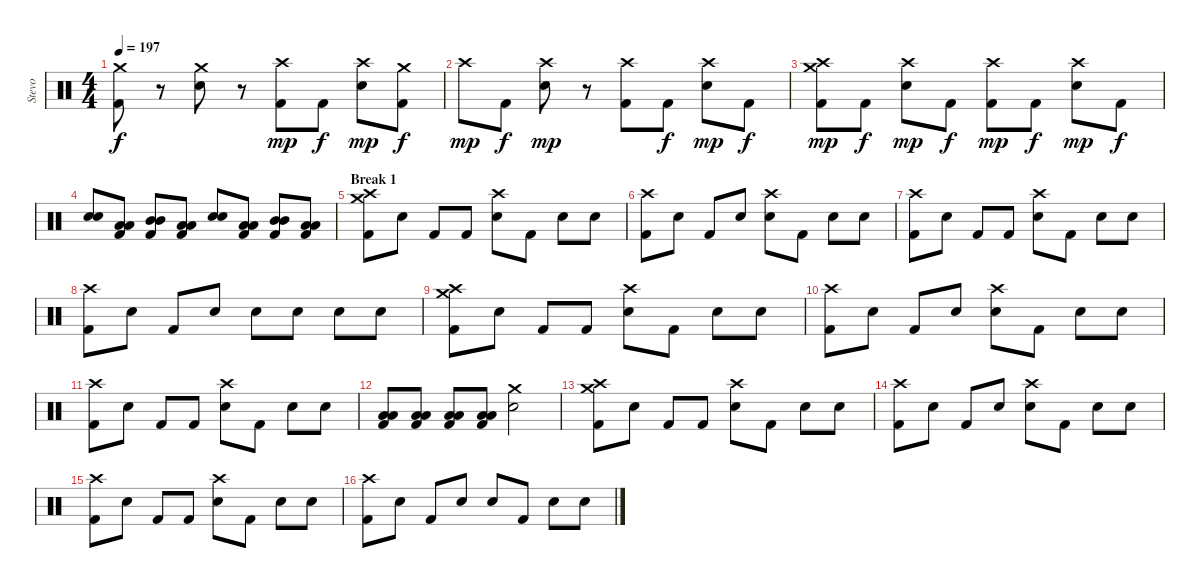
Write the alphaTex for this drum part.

\track ("Stevo" "Stevo") {instrument percussion}
\staff {score}
\articulation defaults
\ts (4 4)
\tempo 197
\clef neutral
\ks c
("Crash medium (hit)" "Kick (hit) 2").8{dy f} r.8 ("Crash medium (hit)" "Electric Snare (hit)").8 r.8 ("Crash high (hit)" "Kick (hit) 2").8{dy mp} "Kick (hit) 2".8{dy f} ("Crash high (hit)" "Electric Snare (hit)").8{dy mp} ("Crash medium (hit)" "Kick (hit) 2").8{dy f} |
"Crash high (hit)".8{dy mp} "Kick (hit) 2".8{dy f} ("Crash high (hit)" "Electric Snare (hit)").8{dy mp} r.8 ("Crash high (hit)" "Kick (hit) 2").8 "Kick (hit) 2".8{dy f} ("Crash high (hit)" "Electric Snare (hit)").8{dy mp} "Kick (hit) 2".8{dy f} |
("Crash medium (hit)" "Crash high (hit)" "Kick (hit) 2").8{dy mp} "Kick (hit) 2".8{dy f} ("Crash high (hit)" "Electric Snare (hit)").8{dy mp} "Kick (hit) 2".8{dy f} ("Crash high (hit)" "Kick (hit) 2").8{dy mp} "Kick (hit) 2".8{dy f} ("Crash high (hit)" "Electric Snare (hit)").8{dy mp} "Kick (hit) 2".8{dy f} |
("Electric Snare (hit)" "Electric Snare (hit)").8 ("Low Tom (hit)" "Low Tom (hit)" "Kick (hit) 2").8 ("Mid Tom (hit)" "Mid Tom (hit)" "Kick (hit) 2").8 ("Low Tom (hit)" "Low Tom (hit)" "Kick (hit) 2").8 ("Electric Snare (hit)" "Electric Snare (hit)").8 ("Low Tom (hit)" "Low Tom (hit)" "Kick (hit) 2").8 ("Mid Tom (hit)" "Mid Tom (hit)" "Kick (hit) 2").8 ("Low Tom (hit)" "Low Tom (hit)" "Kick (hit) 2").8 |
\section ("" "Break 1")
("Crash medium (hit)" "Crash high (hit)" "Kick (hit) 2").8 "Snare (hit)".8 "Kick (hit) 2".8 "Kick (hit) 2".8 ("Crash high (hit)" "Electric Snare (hit)").8 "Kick (hit) 2".8 "Snare (hit)".8 "Electric Snare (hit)".8 |
("Crash high (hit)" "Kick (hit) 2").8 "Electric Snare (hit)".8 "Kick (hit) 2".8 "Snare (hit)".8 ("Crash high (hit)" "Electric Snare (hit)").8 "Kick (hit) 2".8 "Snare (hit)".8 "Electric Snare (hit)".8 |
("Crash high (hit)" "Kick (hit) 2").8 "Snare (hit)".8 "Kick (hit) 2".8 "Kick (hit) 2".8 ("Crash high (hit)" "Electric Snare (hit)").8 "Kick (hit) 2".8 "Snare (hit)".8 "Electric Snare (hit)".8 |
("Crash high (hit)" "Kick (hit) 2").8 "Electric Snare (hit)".8 "Kick (hit) 2".8 "Snare (hit)".8 "Electric Snare (hit)".8 "Electric Snare (hit)".8 "Electric Snare (hit)".8 "Electric Snare (hit)".8 |
("Crash medium (hit)" "Crash high (hit)" "Kick (hit) 2").8 "Snare (hit)".8 "Kick (hit) 2".8 "Kick (hit) 2".8 ("Crash high (hit)" "Electric Snare (hit)").8 "Kick (hit) 2".8 "Snare (hit)".8 "Electric Snare (hit)".8 |
("Crash high (hit)" "Kick (hit) 2").8 "Electric Snare (hit)".8 "Kick (hit) 2".8 "Snare (hit)".8 ("Crash high (hit)" "Electric Snare (hit)").8 "Kick (hit) 2".8 "Snare (hit)".8 "Electric Snare (hit)".8 |
("Crash high (hit)" "Kick (hit) 2").8 "Snare (hit)".8 "Kick (hit) 2".8 "Kick (hit) 2".8 ("Crash high (hit)" "Electric Snare (hit)").8 "Kick (hit) 2".8 "Snare (hit)".8 "Electric Snare (hit)".8 |
("Kick (hit) 2" "Low Tom (hit)" "Low Tom (hit)").8 ("Kick (hit) 2" "Low Tom (hit)" "Low Tom (hit)").8 ("Kick (hit) 2" "Low Tom (hit)" "Low Tom (hit)").8 ("Kick (hit) 2" "Low Tom (hit)" "Low Tom (hit)").8 ("Crash medium (hit)" "Electric Snare (hit)").2 |
("Crash medium (hit)" "Crash high (hit)" "Kick (hit) 2").8 "Snare (hit)".8 "Kick (hit) 2".8 "Kick (hit) 2".8 ("Crash high (hit)" "Electric Snare (hit)").8 "Kick (hit) 2".8 "Snare (hit)".8 "Electric Snare (hit)".8 |
("Crash high (hit)" "Kick (hit) 2").8 "Electric Snare (hit)".8 "Kick (hit) 2".8 "Snare (hit)".8 ("Crash high (hit)" "Electric Snare (hit)").8 "Kick (hit) 2".8 "Snare (hit)".8 "Electric Snare (hit)".8 |
("Crash high (hit)" "Kick (hit) 2").8 "Snare (hit)".8 "Kick (hit) 2".8 "Kick (hit) 2".8 ("Crash high (hit)" "Electric Snare (hit)").8 "Kick (hit) 2".8 "Snare (hit)".8 "Electric Snare (hit)".8 |
("Crash high (hit)" "Kick (hit) 2").8 "Electric Snare (hit)".8 "Kick (hit) 2".8 "Snare (hit)".8 "Electric Snare (hit)".8 "Kick (hit) 2".8 "Electric Snare (hit)".8 "Electric Snare (hit)".8
